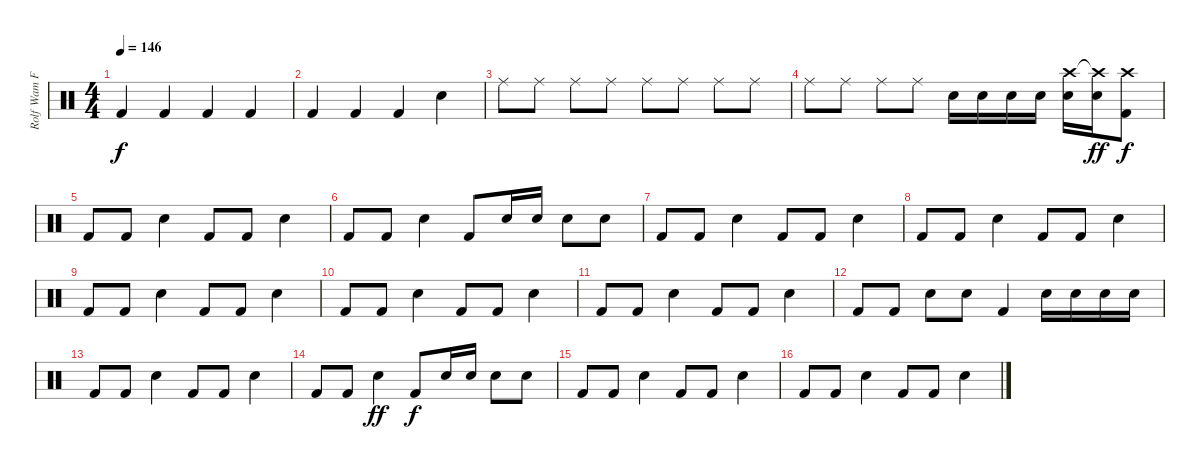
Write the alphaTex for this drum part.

\track ("Rolf Wam Fjell" "Rolf Wam F") {instrument percussion}
\staff {score}
\articulation defaults
\ts (4 4)
\tempo 146
\clef neutral
\ks c "Kick (hit) 2".4{dy f} "Kick (hit) 2".4 "Kick (hit) 2".4 "Kick (hit) 2".4
|
"Kick (hit) 2".4 "Kick (hit) 2".4 "Kick (hit) 2".4 "Electric Snare (hit)".4 |
"Ride (middle)".8 "Ride (middle)".8 "Ride (middle)".8 "Ride (middle)".8 "Ride (middle)".8 "Ride (middle)".8 "Ride (middle)".8 "Ride (middle)".8 |
"Ride (middle)".8 "Ride (middle)".8 "Ride (middle)".8 "Ride (middle)".8 "Electric Snare (hit)".16 "Electric Snare (hit)".16 "Electric Snare (hit)".16 "Electric Snare (hit)".16 ("Electric Snare (hit)" "Crash high (hit)").16 ("Electric Snare (hit)" "Crash high (hit)"{t}).16{dy ff} ("Kick (hit) 2" "Crash high (hit)").8{dy f} |
"Kick (hit) 2".8 "Kick (hit) 2".8 "Electric Snare (hit)".4 "Kick (hit) 2".8 "Kick (hit) 2".8 "Electric Snare (hit)".4 |
"Kick (hit) 2".8 "Kick (hit) 2".8 "Electric Snare (hit)".4 "Kick (hit) 2".8 "Electric Snare (hit)".16 "Electric Snare (hit)".16 "Electric Snare (hit)".8 "Electric Snare (hit)".8 |
"Kick (hit) 2".8 "Kick (hit) 2".8 "Electric Snare (hit)".4 "Kick (hit) 2".8 "Kick (hit) 2".8 "Electric Snare (hit)".4 |
"Kick (hit) 2".8 "Kick (hit) 2".8 "Electric Snare (hit)".4 "Kick (hit) 2".8 "Kick (hit) 2".8 "Electric Snare (hit)".4 |
"Kick (hit) 2".8 "Kick (hit) 2".8 "Electric Snare (hit)".4 "Kick (hit) 2".8 "Kick (hit) 2".8 "Electric Snare (hit)".4 |
"Kick (hit) 2".8 "Kick (hit) 2".8 "Electric Snare (hit)".4 "Kick (hit) 2".8 "Kick (hit) 2".8 "Electric Snare (hit)".4 |
"Kick (hit) 2".8 "Kick (hit) 2".8 "Electric Snare (hit)".4 "Kick (hit) 2".8 "Kick (hit) 2".8 "Electric Snare (hit)".4 |
"Kick (hit) 2".8 "Kick (hit) 2".8 "Electric Snare (hit)".8 "Electric Snare (hit)".8 "Kick (hit) 2".4 "Electric Snare (hit)".16 "Electric Snare (hit)".16 "Electric Snare (hit)".16 "Electric Snare (hit)".16 |
"Kick (hit) 2".8 "Kick (hit) 2".8 "Electric Snare (hit)".4 "Kick (hit) 2".8 "Kick (hit) 2".8 "Electric Snare (hit)".4 |
"Kick (hit) 2".8 "Kick (hit) 2".8 "Electric Snare (hit)".4{dy ff} "Kick (hit) 2".8{dy f} "Electric Snare (hit)".16 "Electric Snare (hit)".16 "Electric Snare (hit)".8 "Electric Snare (hit)".8 |
"Kick (hit) 2".8 "Kick (hit) 2".8 "Electric Snare (hit)".4 "Kick (hit) 2".8 "Kick (hit) 2".8 "Electric Snare (hit)".4 |
"Kick (hit) 2".8 "Kick (hit) 2".8 "Electric Snare (hit)".4 "Kick (hit) 2".8 "Kick (hit) 2".8 "Electric Snare (hit)".4
